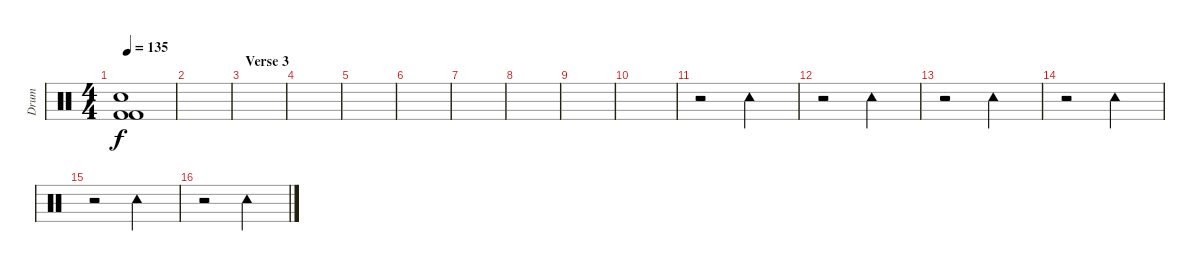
\track ("Drum" "Drum") {instrument percussion}
\staff {score}
\articulation defaults
\ts (4 4)
\tempo 135
\clef neutral
\ks c
("Electric Snare (hit)" "Kick (hit) 2" "Kick (hit) 2").1{dy f} |
|
\section ("" "Verse 3")
|
|
|
|
|
|
|
|
r.2 "Tambourine (hit)".2 |
r.2 "Tambourine (hit)".2 |
r.2 "Tambourine (hit)".2 |
r.2 "Tambourine (hit)".2 |
r.2 "Tambourine (hit)".2 |
r.2 "Tambourine (hit)".2
